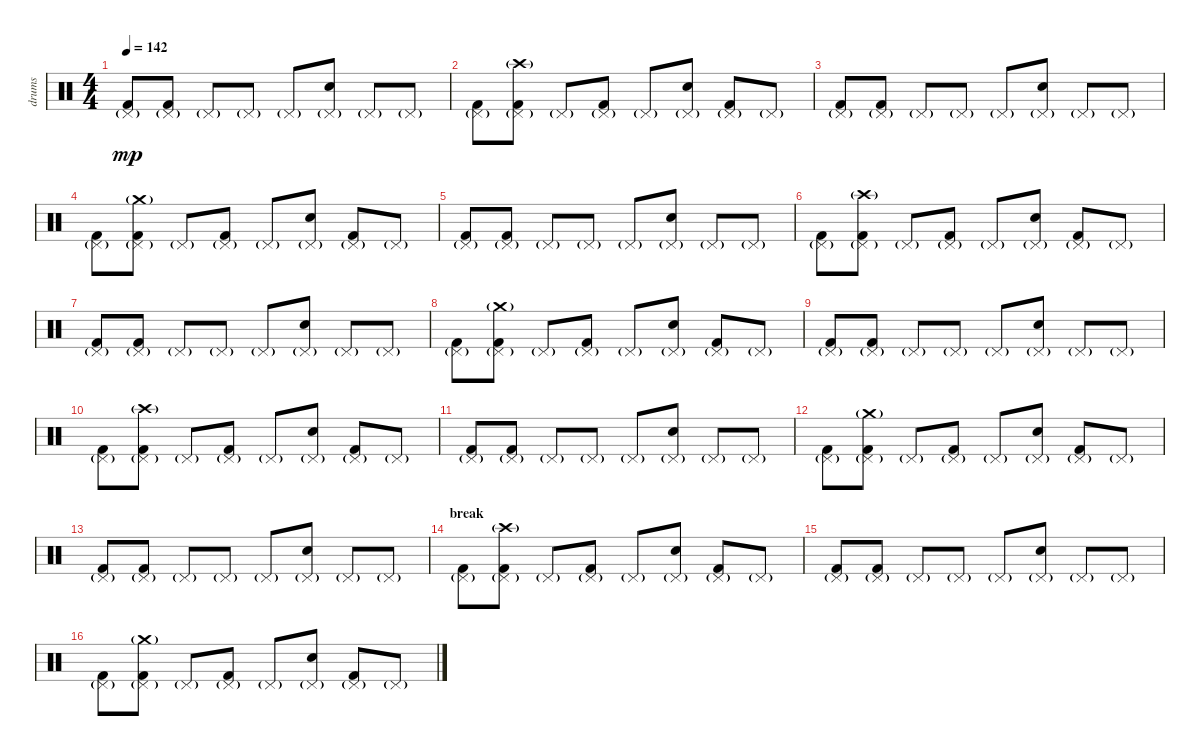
\track ("drums" "drums") {instrument percussion}
\staff {score}
\articulation defaults
\ts (4 4)
\tempo 142
\clef neutral
\ks c
("Kick (hit) 2" "Pedal Hi-Hat (hit)"{g}).8{dy mp} ("Kick (hit) 2" "Pedal Hi-Hat (hit)"{g}).8 "Pedal Hi-Hat (hit)"{g}.8 "Pedal Hi-Hat (hit)"{g}.8 "Pedal Hi-Hat (hit)"{g}.8 ("Snare (hit) 2" "Pedal Hi-Hat (hit)"{g}).8 "Pedal Hi-Hat (hit)"{g}.8 "Pedal Hi-Hat (hit)"{g}.8 |
("Kick (hit) 2" "Pedal Hi-Hat (hit)"{g}).8 ("Kick (hit) 2" "Crash high (hit)"{g} "Pedal Hi-Hat (hit)"{g}).8 "Pedal Hi-Hat (hit)"{g}.8 ("Kick (hit) 2" "Pedal Hi-Hat (hit)"{g}).8 "Pedal Hi-Hat (hit)"{g}.8 ("Snare (hit) 2" "Pedal Hi-Hat (hit)"{g}).8 ("Kick (hit) 2" "Pedal Hi-Hat (hit)"{g}).8 "Pedal Hi-Hat (hit)"{g}.8 |
("Kick (hit) 2" "Pedal Hi-Hat (hit)"{g}).8 ("Kick (hit) 2" "Pedal Hi-Hat (hit)"{g}).8 "Pedal Hi-Hat (hit)"{g}.8 "Pedal Hi-Hat (hit)"{g}.8 "Pedal Hi-Hat (hit)"{g}.8 ("Snare (hit) 2" "Pedal Hi-Hat (hit)"{g}).8 "Pedal Hi-Hat (hit)"{g}.8 "Pedal Hi-Hat (hit)"{g}.8 |
("Kick (hit) 2" "Pedal Hi-Hat (hit)"{g}).8 ("Kick (hit) 2" "Crash medium (hit)"{g} "Pedal Hi-Hat (hit)"{g}).8 "Pedal Hi-Hat (hit)"{g}.8 ("Kick (hit) 2" "Pedal Hi-Hat (hit)"{g}).8 "Pedal Hi-Hat (hit)"{g}.8 ("Snare (hit) 2" "Pedal Hi-Hat (hit)"{g}).8 ("Kick (hit) 2" "Pedal Hi-Hat (hit)"{g}).8 "Pedal Hi-Hat (hit)"{g}.8 |
("Kick (hit) 2" "Pedal Hi-Hat (hit)"{g}).8 ("Kick (hit) 2" "Pedal Hi-Hat (hit)"{g}).8 "Pedal Hi-Hat (hit)"{g}.8 "Pedal Hi-Hat (hit)"{g}.8 "Pedal Hi-Hat (hit)"{g}.8 ("Snare (hit) 2" "Pedal Hi-Hat (hit)"{g}).8 "Pedal Hi-Hat (hit)"{g}.8 "Pedal Hi-Hat (hit)"{g}.8 |
("Kick (hit) 2" "Pedal Hi-Hat (hit)"{g}).8 ("Kick (hit) 2" "Crash high (hit)"{g} "Pedal Hi-Hat (hit)"{g}).8 "Pedal Hi-Hat (hit)"{g}.8 ("Kick (hit) 2" "Pedal Hi-Hat (hit)"{g}).8 "Pedal Hi-Hat (hit)"{g}.8 ("Snare (hit) 2" "Pedal Hi-Hat (hit)"{g}).8 ("Kick (hit) 2" "Pedal Hi-Hat (hit)"{g}).8 "Pedal Hi-Hat (hit)"{g}.8 |
("Kick (hit) 2" "Pedal Hi-Hat (hit)"{g}).8 ("Kick (hit) 2" "Pedal Hi-Hat (hit)"{g}).8 "Pedal Hi-Hat (hit)"{g}.8 "Pedal Hi-Hat (hit)"{g}.8 "Pedal Hi-Hat (hit)"{g}.8 ("Snare (hit) 2" "Pedal Hi-Hat (hit)"{g}).8 "Pedal Hi-Hat (hit)"{g}.8 "Pedal Hi-Hat (hit)"{g}.8 |
("Kick (hit) 2" "Pedal Hi-Hat (hit)"{g}).8 ("Kick (hit) 2" "Crash medium (hit)"{g} "Pedal Hi-Hat (hit)"{g}).8 "Pedal Hi-Hat (hit)"{g}.8 ("Kick (hit) 2" "Pedal Hi-Hat (hit)"{g}).8 "Pedal Hi-Hat (hit)"{g}.8 ("Snare (hit) 2" "Pedal Hi-Hat (hit)"{g}).8 ("Kick (hit) 2" "Pedal Hi-Hat (hit)"{g}).8 "Pedal Hi-Hat (hit)"{g}.8 |
("Kick (hit) 2" "Pedal Hi-Hat (hit)"{g}).8 ("Kick (hit) 2" "Pedal Hi-Hat (hit)"{g}).8 "Pedal Hi-Hat (hit)"{g}.8 "Pedal Hi-Hat (hit)"{g}.8 "Pedal Hi-Hat (hit)"{g}.8 ("Snare (hit) 2" "Pedal Hi-Hat (hit)"{g}).8 "Pedal Hi-Hat (hit)"{g}.8 "Pedal Hi-Hat (hit)"{g}.8 |
("Kick (hit) 2" "Pedal Hi-Hat (hit)"{g}).8 ("Kick (hit) 2" "Crash high (hit)"{g} "Pedal Hi-Hat (hit)"{g}).8 "Pedal Hi-Hat (hit)"{g}.8 ("Kick (hit) 2" "Pedal Hi-Hat (hit)"{g}).8 "Pedal Hi-Hat (hit)"{g}.8 ("Snare (hit) 2" "Pedal Hi-Hat (hit)"{g}).8 ("Kick (hit) 2" "Pedal Hi-Hat (hit)"{g}).8 "Pedal Hi-Hat (hit)"{g}.8 |
("Kick (hit) 2" "Pedal Hi-Hat (hit)"{g}).8 ("Kick (hit) 2" "Pedal Hi-Hat (hit)"{g}).8 "Pedal Hi-Hat (hit)"{g}.8 "Pedal Hi-Hat (hit)"{g}.8 "Pedal Hi-Hat (hit)"{g}.8 ("Snare (hit) 2" "Pedal Hi-Hat (hit)"{g}).8 "Pedal Hi-Hat (hit)"{g}.8 "Pedal Hi-Hat (hit)"{g}.8 |
("Kick (hit) 2" "Pedal Hi-Hat (hit)"{g}).8 ("Kick (hit) 2" "Crash medium (hit)"{g} "Pedal Hi-Hat (hit)"{g}).8 "Pedal Hi-Hat (hit)"{g}.8 ("Kick (hit) 2" "Pedal Hi-Hat (hit)"{g}).8 "Pedal Hi-Hat (hit)"{g}.8 ("Snare (hit) 2" "Pedal Hi-Hat (hit)"{g}).8 ("Kick (hit) 2" "Pedal Hi-Hat (hit)"{g}).8 "Pedal Hi-Hat (hit)"{g}.8 |
("Kick (hit) 2" "Pedal Hi-Hat (hit)"{g}).8 ("Kick (hit) 2" "Pedal Hi-Hat (hit)"{g}).8 "Pedal Hi-Hat (hit)"{g}.8 "Pedal Hi-Hat (hit)"{g}.8 "Pedal Hi-Hat (hit)"{g}.8 ("Snare (hit) 2" "Pedal Hi-Hat (hit)"{g}).8 "Pedal Hi-Hat (hit)"{g}.8 "Pedal Hi-Hat (hit)"{g}.8 |
\section ("" "break")
("Kick (hit) 2" "Pedal Hi-Hat (hit)"{g}).8 ("Kick (hit) 2" "Crash high (hit)"{g} "Pedal Hi-Hat (hit)"{g}).8 "Pedal Hi-Hat (hit)"{g}.8 ("Kick (hit) 2" "Pedal Hi-Hat (hit)"{g}).8 "Pedal Hi-Hat (hit)"{g}.8 ("Snare (hit) 2" "Pedal Hi-Hat (hit)"{g}).8 ("Kick (hit) 2" "Pedal Hi-Hat (hit)"{g}).8 "Pedal Hi-Hat (hit)"{g}.8 |
("Kick (hit) 2" "Pedal Hi-Hat (hit)"{g}).8 ("Kick (hit) 2" "Pedal Hi-Hat (hit)"{g}).8 "Pedal Hi-Hat (hit)"{g}.8 "Pedal Hi-Hat (hit)"{g}.8 "Pedal Hi-Hat (hit)"{g}.8 ("Snare (hit) 2" "Pedal Hi-Hat (hit)"{g}).8 "Pedal Hi-Hat (hit)"{g}.8 "Pedal Hi-Hat (hit)"{g}.8 |
("Kick (hit) 2" "Pedal Hi-Hat (hit)"{g}).8 ("Kick (hit) 2" "Crash medium (hit)"{g} "Pedal Hi-Hat (hit)"{g}).8 "Pedal Hi-Hat (hit)"{g}.8 ("Kick (hit) 2" "Pedal Hi-Hat (hit)"{g}).8 "Pedal Hi-Hat (hit)"{g}.8 ("Snare (hit) 2" "Pedal Hi-Hat (hit)"{g}).8 ("Kick (hit) 2" "Pedal Hi-Hat (hit)"{g}).8 "Pedal Hi-Hat (hit)"{g}.8
